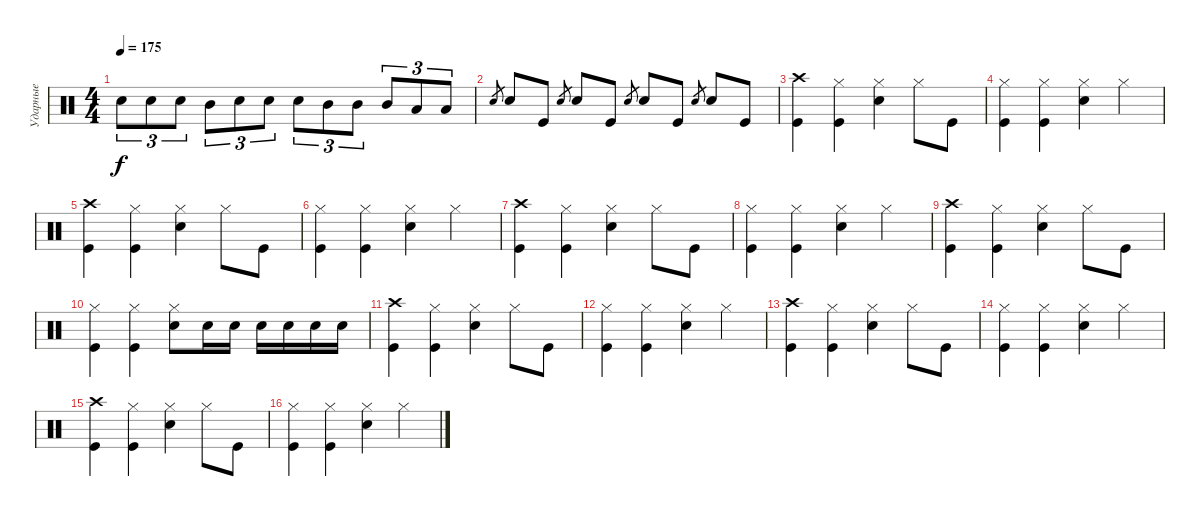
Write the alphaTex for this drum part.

\track ("Ударные" "Ударные") {instrument percussion}
\staff {score}
\articulation defaults
\ts (4 4)
\tempo 175
\clef neutral
\ks c "Electric Snare (hit)".8{tu (3 2) dy f} "Electric Snare (hit)".8{tu (3 2)} "Electric Snare (hit)".8{tu (3 2)} "Mid Tom (hit)".8{tu (3 2)} "Electric Snare (hit)".8{tu (3 2)} "Electric Snare (hit)".8{tu (3 2)} "Electric Snare (hit)".8{tu (3 2)} "Mid Tom (hit)".8{tu (3 2)} "Mid Tom (hit)".8{tu (3 2)} "Mid Tom (hit)".8{tu (3 2)} "Low Tom (hit)".8{tu (3 2)} "Low Tom (hit)".8{tu (3 2)}
|
"Electric Snare (hit)".8{gr} "Electric Snare (hit)".8 "Kick (hit)".8 "Electric Snare (hit)".8{gr} "Electric Snare (hit)".8 "Kick (hit)".8 "Electric Snare (hit)".8{gr} "Electric Snare (hit)".8 "Kick (hit)".8 "Electric Snare (hit)".8{gr} "Electric Snare (hit)".8 "Kick (hit)".8 |
("Crash high (hit)" "Kick (hit)").4 ("Hi-Hat (closed)" "Kick (hit)").4 ("Hi-Hat (closed)" "Electric Snare (hit)").4 "Hi-Hat (closed)".8 "Kick (hit)".8 |
("Kick (hit)" "Hi-Hat (closed)").4 ("Hi-Hat (closed)" "Kick (hit)").4 ("Hi-Hat (closed)" "Electric Snare (hit)").4 "Hi-Hat (closed)".4 |
("Crash high (hit)" "Kick (hit)").4 ("Hi-Hat (closed)" "Kick (hit)").4 ("Hi-Hat (closed)" "Electric Snare (hit)").4 "Hi-Hat (closed)".8 "Kick (hit)".8 |
("Kick (hit)" "Hi-Hat (closed)").4 ("Hi-Hat (closed)" "Kick (hit)").4 ("Hi-Hat (closed)" "Electric Snare (hit)").4 "Hi-Hat (closed)".4 |
("Crash high (hit)" "Kick (hit)").4 ("Hi-Hat (closed)" "Kick (hit)").4 ("Hi-Hat (closed)" "Electric Snare (hit)").4 "Hi-Hat (closed)".8 "Kick (hit)".8 |
("Kick (hit)" "Hi-Hat (closed)").4 ("Hi-Hat (closed)" "Kick (hit)").4 ("Hi-Hat (closed)" "Electric Snare (hit)").4 "Hi-Hat (closed)".4 |
("Crash high (hit)" "Kick (hit)").4 ("Hi-Hat (closed)" "Kick (hit)").4 ("Hi-Hat (closed)" "Electric Snare (hit)").4 "Hi-Hat (closed)".8 "Kick (hit)".8 |
("Kick (hit)" "Hi-Hat (closed)").4 ("Hi-Hat (closed)" "Kick (hit)").4 ("Electric Snare (hit)" "Hi-Hat (closed)").8 "Electric Snare (hit)".16 "Electric Snare (hit)".16 "Electric Snare (hit)".16 "Electric Snare (hit)".16 "Electric Snare (hit)".16 "Electric Snare (hit)".16 |
("Crash high (hit)" "Kick (hit)").4 ("Hi-Hat (closed)" "Kick (hit)").4 ("Hi-Hat (closed)" "Electric Snare (hit)").4 "Hi-Hat (closed)".8 "Kick (hit)".8 |
("Kick (hit)" "Hi-Hat (closed)").4 ("Hi-Hat (closed)" "Kick (hit)").4 ("Hi-Hat (closed)" "Electric Snare (hit)").4 "Hi-Hat (closed)".4 |
("Crash high (hit)" "Kick (hit)").4 ("Hi-Hat (closed)" "Kick (hit)").4 ("Hi-Hat (closed)" "Electric Snare (hit)").4 "Hi-Hat (closed)".8 "Kick (hit)".8 |
("Kick (hit)" "Hi-Hat (closed)").4 ("Hi-Hat (closed)" "Kick (hit)").4 ("Hi-Hat (closed)" "Electric Snare (hit)").4 "Hi-Hat (closed)".4 |
("Crash high (hit)" "Kick (hit)").4 ("Hi-Hat (closed)" "Kick (hit)").4 ("Hi-Hat (closed)" "Electric Snare (hit)").4 "Hi-Hat (closed)".8 "Kick (hit)".8 |
("Kick (hit)" "Hi-Hat (closed)").4 ("Hi-Hat (closed)" "Kick (hit)").4 ("Hi-Hat (closed)" "Electric Snare (hit)").4 "Hi-Hat (closed)".4
